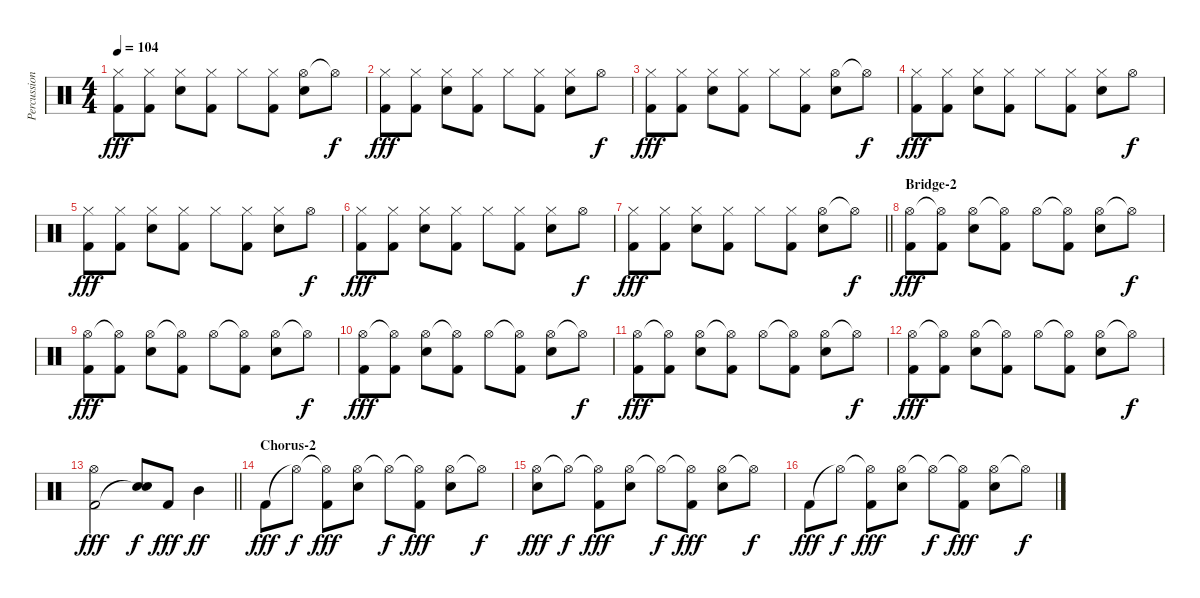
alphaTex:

\track ("Percussion" "Percussion") {instrument percussion}
\staff {score}
\articulation defaults
\ts (4 4)
\tempo 104
\clef neutral
\ks c
("Hi-Hat (closed)" "Kick (hit) 2").8{dy fff} ("Hi-Hat (closed)" "Kick (hit) 2").8 ("Hi-Hat (closed)" "Electric Snare (hit)").8 ("Hi-Hat (closed)" "Kick (hit) 2").8 "Hi-Hat (closed)".8 ("Hi-Hat (closed)" "Kick (hit) 2").8 ("Hi-Hat (open)" "Electric Snare (hit)").8 "Hi-Hat (open)"{t}.8{dy f} |
("Hi-Hat (closed)" "Kick (hit) 2").8{dy fff} ("Hi-Hat (closed)" "Kick (hit) 2").8 ("Hi-Hat (closed)" "Electric Snare (hit)").8 ("Hi-Hat (closed)" "Kick (hit) 2").8 "Hi-Hat (closed)".8 ("Hi-Hat (closed)" "Kick (hit) 2").8 ("Hi-Hat (closed)" "Electric Snare (hit)").8 "Hi-Hat (open)".8{dy f} |
("Hi-Hat (closed)" "Kick (hit) 2").8{dy fff} ("Hi-Hat (closed)" "Kick (hit) 2").8 ("Hi-Hat (closed)" "Electric Snare (hit)").8 ("Hi-Hat (closed)" "Kick (hit) 2").8 "Hi-Hat (closed)".8 ("Hi-Hat (closed)" "Kick (hit) 2").8 ("Hi-Hat (open)" "Electric Snare (hit)").8 "Hi-Hat (open)"{t}.8{dy f} |
("Hi-Hat (closed)" "Kick (hit) 2").8{dy fff} ("Hi-Hat (closed)" "Kick (hit) 2").8 ("Hi-Hat (closed)" "Electric Snare (hit)").8 ("Hi-Hat (closed)" "Kick (hit) 2").8 "Hi-Hat (closed)".8 ("Hi-Hat (closed)" "Kick (hit) 2").8 ("Hi-Hat (closed)" "Electric Snare (hit)").8 "Hi-Hat (open)".8{dy f} |
("Hi-Hat (closed)" "Kick (hit) 2").8{dy fff} ("Hi-Hat (closed)" "Kick (hit) 2").8 ("Hi-Hat (closed)" "Electric Snare (hit)").8 ("Hi-Hat (closed)" "Kick (hit) 2").8 "Hi-Hat (closed)".8 ("Hi-Hat (closed)" "Kick (hit) 2").8 ("Hi-Hat (closed)" "Electric Snare (hit)").8 "Hi-Hat (open)".8{dy f} |
("Hi-Hat (closed)" "Kick (hit) 2").8{dy fff} ("Hi-Hat (closed)" "Kick (hit) 2").8 ("Hi-Hat (closed)" "Electric Snare (hit)").8 ("Hi-Hat (closed)" "Kick (hit) 2").8 "Hi-Hat (closed)".8 ("Hi-Hat (closed)" "Kick (hit) 2").8 ("Hi-Hat (closed)" "Electric Snare (hit)").8 "Hi-Hat (open)".8{dy f} |
\barLineRight lightlight
("Hi-Hat (closed)" "Kick (hit) 2").8{dy fff} ("Hi-Hat (closed)" "Kick (hit) 2").8 ("Hi-Hat (closed)" "Electric Snare (hit)").8 ("Hi-Hat (closed)" "Kick (hit) 2").8 "Hi-Hat (closed)".8 ("Hi-Hat (closed)" "Kick (hit) 2").8 ("Hi-Hat (open)" "Electric Snare (hit)").8 "Hi-Hat (open)"{t}.8{dy f} |
\section ("" "Bridge-2")
("Hi-Hat (open)" "Kick (hit) 2").8{dy fff} ("Hi-Hat (open)"{t} "Kick (hit) 2").8 ("Hi-Hat (open)" "Electric Snare (hit)").8 ("Hi-Hat (open)"{t} "Kick (hit) 2").8 "Hi-Hat (open)".8 ("Hi-Hat (open)"{t} "Kick (hit) 2").8 ("Hi-Hat (open)" "Electric Snare (hit)").8 "Hi-Hat (open)"{t}.8{dy f} |
("Hi-Hat (open)" "Kick (hit) 2").8{dy fff} ("Hi-Hat (open)"{t} "Kick (hit) 2").8 ("Hi-Hat (open)" "Electric Snare (hit)").8 ("Hi-Hat (open)"{t} "Kick (hit) 2").8 "Hi-Hat (open)".8 ("Hi-Hat (open)"{t} "Kick (hit) 2").8 ("Hi-Hat (open)" "Electric Snare (hit)").8 "Hi-Hat (open)"{t}.8{dy f} |
("Hi-Hat (open)" "Kick (hit) 2").8{dy fff} ("Hi-Hat (open)"{t} "Kick (hit) 2").8 ("Hi-Hat (open)" "Electric Snare (hit)").8 ("Hi-Hat (open)"{t} "Kick (hit) 2").8 "Hi-Hat (open)".8 ("Hi-Hat (open)"{t} "Kick (hit) 2").8 ("Hi-Hat (open)" "Electric Snare (hit)").8 "Hi-Hat (open)"{t}.8{dy f} |
("Hi-Hat (open)" "Kick (hit) 2").8{dy fff} ("Hi-Hat (open)"{t} "Kick (hit) 2").8 ("Hi-Hat (open)" "Electric Snare (hit)").8 ("Hi-Hat (open)"{t} "Kick (hit) 2").8 "Hi-Hat (open)".8 ("Hi-Hat (open)"{t} "Kick (hit) 2").8 ("Hi-Hat (open)" "Electric Snare (hit)").8 "Hi-Hat (open)"{t}.8{dy f} |
("Hi-Hat (open)" "Kick (hit) 2").8{dy fff} ("Hi-Hat (open)"{t} "Kick (hit) 2").8 ("Hi-Hat (open)" "Electric Snare (hit)").8 ("Hi-Hat (open)"{t} "Kick (hit) 2").8 "Hi-Hat (open)".8 ("Hi-Hat (open)"{t} "Kick (hit) 2").8 ("Hi-Hat (open)" "Electric Snare (hit)").8 "Hi-Hat (open)"{t}.8{dy f} |
\barLineRight lightlight
("Hi-Hat (open)" "Kick (hit) 2").2{dy fff} ("Electric Snare (hit)" "Snare (hit)"{t}).8{dy f} "Kick (hit) 2".8{dy fff} "Mid Tom (hit)".4{dy ff} |
\section ("" "Chorus-2")
"Kick (hit) 2".8{dy fff} "Hi-Hat (open)"{t}.8{dy f} ("Hi-Hat (open)"{t} "Kick (hit) 2").8{dy fff} ("Hi-Hat (open)" "Electric Snare (hit)").8 "Hi-Hat (open)"{t}.8{dy f} ("Hi-Hat (open)"{t} "Kick (hit) 2").8{dy fff} ("Hi-Hat (open)" "Electric Snare (hit)").8 "Hi-Hat (open)"{t}.8{dy f} |
("Hi-Hat (open)" "Electric Snare (hit)").8{dy fff} "Hi-Hat (open)"{t}.8{dy f} ("Hi-Hat (open)"{t} "Kick (hit) 2").8{dy fff} ("Hi-Hat (open)" "Electric Snare (hit)").8 "Hi-Hat (open)"{t}.8{dy f} ("Hi-Hat (open)"{t} "Kick (hit) 2").8{dy fff} ("Hi-Hat (open)" "Electric Snare (hit)").8 "Hi-Hat (open)"{t}.8{dy f} |
"Kick (hit) 2".8{dy fff} "Hi-Hat (open)"{t}.8{dy f} ("Hi-Hat (open)"{t} "Kick (hit) 2").8{dy fff} ("Hi-Hat (open)" "Electric Snare (hit)").8 "Hi-Hat (open)"{t}.8{dy f} ("Hi-Hat (open)"{t} "Kick (hit) 2").8{dy fff} ("Hi-Hat (open)" "Electric Snare (hit)").8 "Hi-Hat (open)"{t}.8{dy f}
